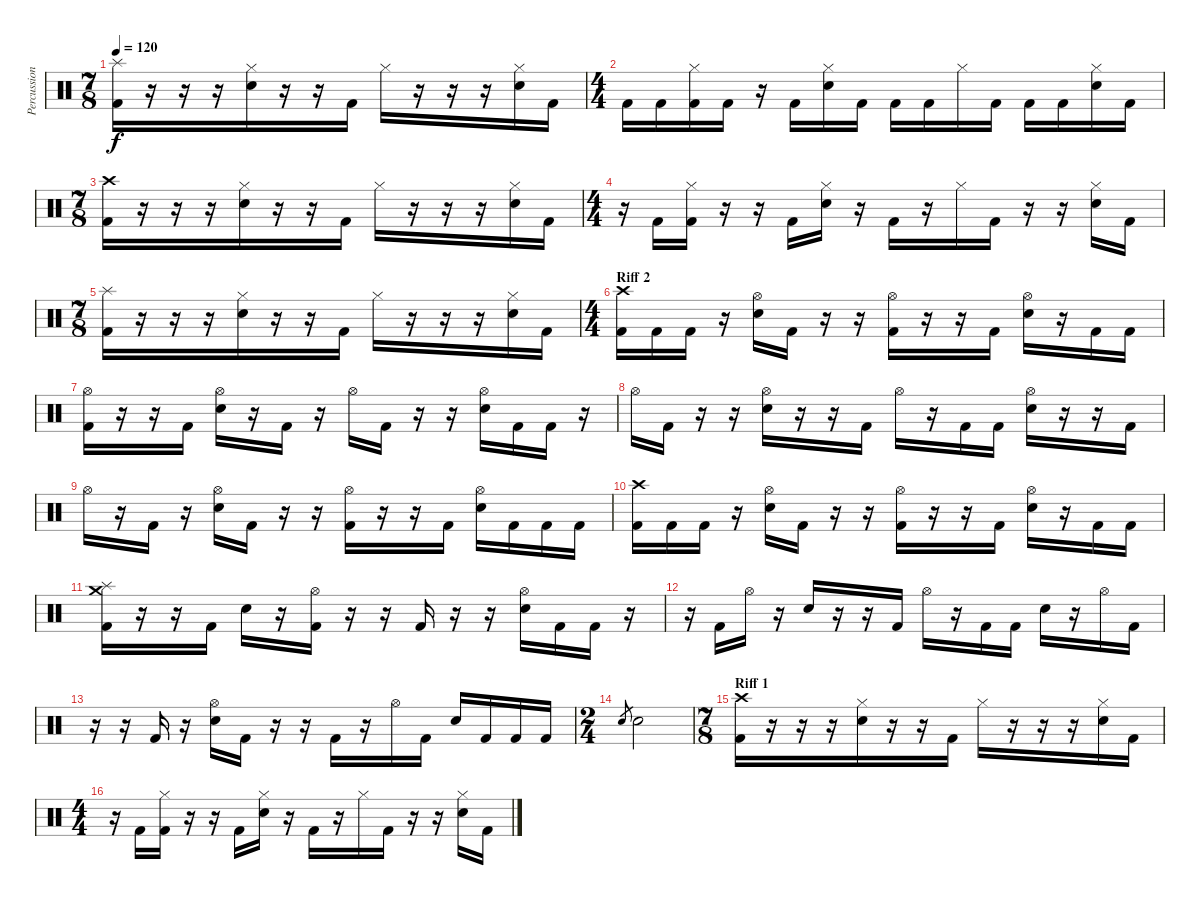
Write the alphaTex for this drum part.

\track ("Percussion" "Percussion") {instrument percussion}
\staff {score}
\articulation defaults
\ts (7 8)
\tempo 120
\clef neutral
\ks c
("Splash (hit)" "Kick (hit) 2").16{dy f} r.16 r.16 r.16 ("Hi-Hat (closed)" "Electric Snare (hit)").16 r.16 r.16 "Kick (hit) 2".16 "Hi-Hat (closed)".16 r.16 r.16 r.16 ("Hi-Hat (closed)" "Electric Snare (hit)").16 "Kick (hit) 2".16 |
\ts (4 4)
"Kick (hit) 2".16 "Kick (hit) 2".16 ("Hi-Hat (closed)" "Kick (hit) 2").16 "Kick (hit) 2".16 r.16 "Kick (hit) 2".16 ("Hi-Hat (closed)" "Electric Snare (hit)").16 "Kick (hit) 2".16 "Kick (hit) 2".16 "Kick (hit) 2".16 "Hi-Hat (closed)".16 "Kick (hit) 2".16 "Kick (hit) 2".16 "Kick (hit) 2".16 ("Hi-Hat (closed)" "Electric Snare (hit)").16 "Kick (hit) 2".16 |
\ts (7 8)
("Crash high (hit)" "Kick (hit) 2").16 r.16 r.16 r.16 ("Hi-Hat (closed)" "Electric Snare (hit)").16 r.16 r.16 "Kick (hit) 2".16 "Hi-Hat (closed)".16 r.16 r.16 r.16 ("Hi-Hat (closed)" "Electric Snare (hit)").16 "Kick (hit) 2".16 |
\ts (4 4)
r.16 "Kick (hit) 2".16 ("Hi-Hat (closed)" "Kick (hit) 2").16 r.16 r.16 "Kick (hit) 2".16 ("Hi-Hat (closed)" "Electric Snare (hit)").16 r.16 "Kick (hit) 2".16 r.16 "Hi-Hat (closed)".16 "Kick (hit) 2".16 r.16 r.16 ("Hi-Hat (closed)" "Electric Snare (hit)").16 "Kick (hit) 2".16 |
\ts (7 8)
("Splash (hit)" "Kick (hit) 2").16 r.16 r.16 r.16 ("Hi-Hat (closed)" "Electric Snare (hit)").16 r.16 r.16 "Kick (hit) 2".16 "Hi-Hat (closed)".16 r.16 r.16 r.16 ("Hi-Hat (closed)" "Electric Snare (hit)").16 "Kick (hit) 2".16 |
\ts (4 4)
\section ("" "Riff 2")
("Crash high (hit)" "Kick (hit) 2").16 "Kick (hit) 2".16 "Kick (hit) 2".16 r.16 ("Hi-Hat (open)" "Electric Snare (hit)").16 "Kick (hit) 2".16 r.16 r.16 ("Hi-Hat (open)" "Kick (hit) 2").16 r.16 r.16 "Kick (hit) 2".16 ("Hi-Hat (open)" "Electric Snare (hit)").16 r.16 "Kick (hit) 2".16 "Kick (hit) 2".16 |
("Hi-Hat (open)" "Kick (hit) 2").16 r.16 r.16 "Kick (hit) 2".16 ("Hi-Hat (open)" "Electric Snare (hit)").16 r.16 "Kick (hit) 2".16 r.16 "Hi-Hat (open)".16 "Kick (hit) 2".16 r.16 r.16 ("Hi-Hat (open)" "Electric Snare (hit)").16 "Kick (hit) 2".16 "Kick (hit) 2".16 r.16 |
"Hi-Hat (open)".16 "Kick (hit) 2".16 r.16 r.16 ("Hi-Hat (open)" "Electric Snare (hit)").16 r.16 r.16 "Kick (hit) 2".16 "Hi-Hat (open)".16 r.16 "Kick (hit) 2".16 "Kick (hit) 2".16 ("Hi-Hat (open)" "Electric Snare (hit)").16 r.16 r.16 "Kick (hit) 2".16 |
"Hi-Hat (open)".16 r.16 "Kick (hit) 2".16 r.16 ("Hi-Hat (open)" "Electric Snare (hit)").16 "Kick (hit) 2".16 r.16 r.16 ("Hi-Hat (open)" "Kick (hit) 2").16 r.16 r.16 "Kick (hit) 2".16 ("Hi-Hat (open)" "Electric Snare (hit)").16 "Kick (hit) 2".16 "Kick (hit) 2".16 "Kick (hit) 2".16 |
("Crash high (hit)" "Kick (hit) 2").16 "Kick (hit) 2".16 "Kick (hit) 2".16 r.16 ("Hi-Hat (open)" "Electric Snare (hit)").16 "Kick (hit) 2".16 r.16 r.16 ("Hi-Hat (open)" "Kick (hit) 2").16 r.16 r.16 "Kick (hit) 2".16 ("Hi-Hat (open)" "Electric Snare (hit)").16 r.16 "Kick (hit) 2".16 "Kick (hit) 2".16 |
("Splash (hit)" "Crash medium (hit)" "Kick (hit) 2").16 r.16 r.16 "Kick (hit) 2".16 "Electric Snare (hit)".16 r.16 ("Hi-Hat (open)" "Kick (hit) 2").16 r.16 r.16 "Kick (hit) 2".16 r.16 r.16 ("Hi-Hat (open)" "Electric Snare (hit)").16 "Kick (hit) 2".16 "Kick (hit) 2".16 r.16 |
r.16 "Kick (hit) 2".16 "Hi-Hat (open)".16 r.16 "Electric Snare (hit)".16 r.16 r.16 "Kick (hit) 2".16 "Hi-Hat (open)".16 r.16 "Kick (hit) 2".16 "Kick (hit) 2".16 "Electric Snare (hit)".16 r.16 "Hi-Hat (open)".16 "Kick (hit) 2".16 |
r.16 r.16 "Kick (hit) 2".16 r.16 ("Hi-Hat (open)" "Electric Snare (hit)").16 "Kick (hit) 2".16 r.16 r.16 "Kick (hit) 2".16 r.16 "Hi-Hat (open)".16 "Kick (hit) 2".16 "Electric Snare (hit)".16 "Kick (hit) 2".16 "Kick (hit) 2".16 "Kick (hit) 2".16 |
\ts (2 4)
"Electric Snare (hit)".8{gr} "Electric Snare (hit)".2 |
\ts (7 8)
\section ("" "Riff 1")
("Crash high (hit)" "Kick (hit) 2").16 r.16 r.16 r.16 ("Hi-Hat (closed)" "Electric Snare (hit)").16 r.16 r.16 "Kick (hit) 2".16 "Hi-Hat (closed)".16 r.16 r.16 r.16 ("Hi-Hat (closed)" "Electric Snare (hit)").16 "Kick (hit) 2".16 |
\ts (4 4)
r.16 "Kick (hit) 2".16 ("Hi-Hat (closed)" "Kick (hit) 2").16 r.16 r.16 "Kick (hit) 2".16 ("Hi-Hat (closed)" "Electric Snare (hit)").16 r.16 "Kick (hit) 2".16 r.16 "Hi-Hat (closed)".16 "Kick (hit) 2".16 r.16 r.16 ("Hi-Hat (closed)" "Electric Snare (hit)").16 "Kick (hit) 2".16
